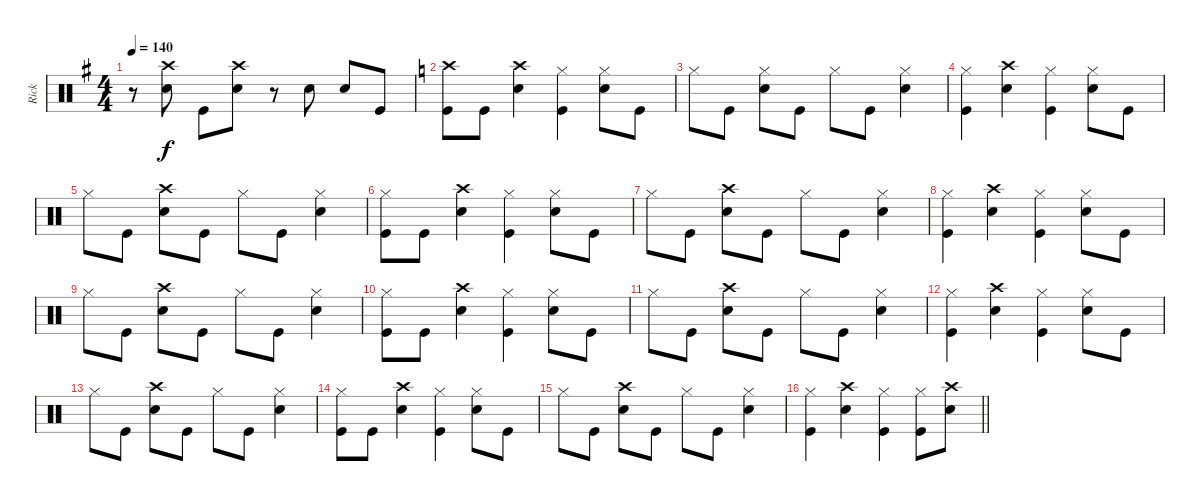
\track ("Rick" "Rick") {instrument percussion}
\staff {score}
\articulation defaults
\ts (4 4)
\tempo 140
\clef neutral
\ks g
r.8{dy f} ("Crash high (hit)" "Snare (hit) 2").8 "Kick (hit)".8 ("Crash high (hit)" "Snare (hit) 2").8 r.8 "Snare (hit) 2".8 "Snare (hit) 2".8 "Kick (hit)".8 |
\ks c
("Crash high (hit)" "Kick (hit)").8 "Kick (hit)".8 ("Crash high (hit)" "Snare (hit) 2").4 ("Hi-Hat (closed)" "Kick (hit)").4 ("Hi-Hat (closed)" "Snare (hit) 2").8 "Kick (hit)".8 |
"Hi-Hat (closed)".8 "Kick (hit)".8 ("Hi-Hat (closed)" "Snare (hit) 2").8 "Kick (hit)".8 "Hi-Hat (closed)".8 "Kick (hit)".8 ("Hi-Hat (closed)" "Snare (hit) 2").4 |
("Hi-Hat (closed)" "Kick (hit)").4 ("Crash high (hit)" "Snare (hit) 2").4 ("Hi-Hat (closed)" "Kick (hit)").4 ("Hi-Hat (closed)" "Snare (hit) 2").8 "Kick (hit)".8 |
"Hi-Hat (closed)".8 "Kick (hit)".8 ("Crash high (hit)" "Snare (hit) 2").8 "Kick (hit)".8 "Hi-Hat (closed)".8 "Kick (hit)".8 ("Hi-Hat (closed)" "Snare (hit) 2").4 |
("Hi-Hat (closed)" "Kick (hit)").8 "Kick (hit)".8 ("Crash high (hit)" "Snare (hit) 2").4 ("Hi-Hat (closed)" "Kick (hit)").4 ("Hi-Hat (closed)" "Snare (hit) 2").8 "Kick (hit)".8 |
"Hi-Hat (closed)".8 "Kick (hit)".8 ("Crash high (hit)" "Snare (hit) 2").8 "Kick (hit)".8 "Hi-Hat (closed)".8 "Kick (hit)".8 ("Hi-Hat (closed)" "Snare (hit) 2").4 |
("Hi-Hat (closed)" "Kick (hit)").4 ("Crash high (hit)" "Snare (hit) 2").4 ("Hi-Hat (closed)" "Kick (hit)").4 ("Hi-Hat (closed)" "Snare (hit) 2").8 "Kick (hit)".8 |
"Hi-Hat (closed)".8 "Kick (hit)".8 ("Crash high (hit)" "Snare (hit) 2").8 "Kick (hit)".8 "Hi-Hat (closed)".8 "Kick (hit)".8 ("Hi-Hat (closed)" "Snare (hit) 2").4 |
("Hi-Hat (closed)" "Kick (hit)").8 "Kick (hit)".8 ("Crash high (hit)" "Snare (hit) 2").4 ("Hi-Hat (closed)" "Kick (hit)").4 ("Hi-Hat (closed)" "Snare (hit) 2").8 "Kick (hit)".8 |
"Hi-Hat (closed)".8 "Kick (hit)".8 ("Crash high (hit)" "Snare (hit) 2").8 "Kick (hit)".8 "Hi-Hat (closed)".8 "Kick (hit)".8 ("Hi-Hat (closed)" "Snare (hit) 2").4 |
("Hi-Hat (closed)" "Kick (hit)").4 ("Crash high (hit)" "Snare (hit) 2").4 ("Hi-Hat (closed)" "Kick (hit)").4 ("Hi-Hat (closed)" "Snare (hit) 2").8 "Kick (hit)".8 |
"Hi-Hat (closed)".8 "Kick (hit)".8 ("Crash high (hit)" "Snare (hit) 2").8 "Kick (hit)".8 "Hi-Hat (closed)".8 "Kick (hit)".8 ("Hi-Hat (closed)" "Snare (hit) 2").4 |
("Hi-Hat (closed)" "Kick (hit)").8 "Kick (hit)".8 ("Crash high (hit)" "Snare (hit) 2").4 ("Hi-Hat (closed)" "Kick (hit)").4 ("Hi-Hat (closed)" "Snare (hit) 2").8 "Kick (hit)".8 |
"Hi-Hat (closed)".8 "Kick (hit)".8 ("Crash high (hit)" "Snare (hit) 2").8 "Kick (hit)".8 "Hi-Hat (closed)".8 "Kick (hit)".8 ("Hi-Hat (closed)" "Snare (hit) 2").4 |
\barLineRight lightlight
("Hi-Hat (closed)" "Kick (hit)").4 ("Crash high (hit)" "Snare (hit) 2").4 ("Hi-Hat (closed)" "Kick (hit)").4 ("Hi-Hat (closed)" "Kick (hit)").8 ("Crash high (hit)" "Snare (hit) 2").8
